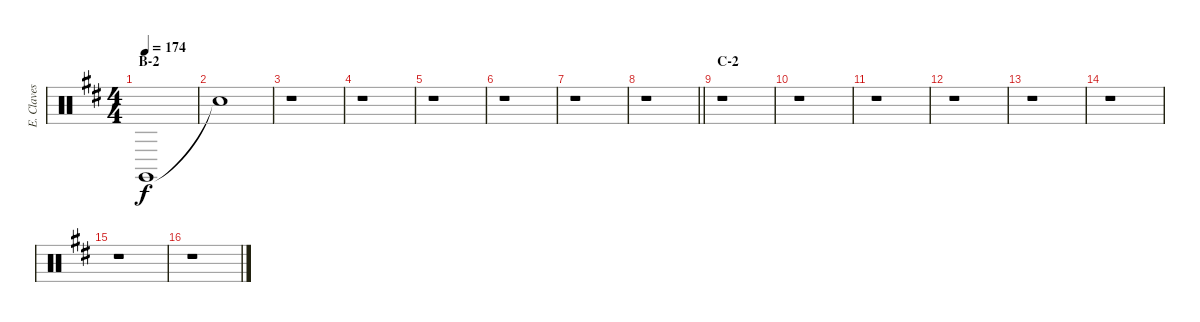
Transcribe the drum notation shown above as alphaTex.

\track ("E. Claves" "E. Claves") {instrument percussion}
\staff {score}
\articulation defaults
\ts (4 4)
\section ("" "B-2")
\tempo 174
\clef neutral
\ks bminor "Claves (hit)".1{dy f}
|
"Snare (hit)"{t}.1 |
r.1 |
r.1 |
r.1 |
r.1 |
r.1 |
\barLineRight lightlight
r.1 |
\section ("" "C-2")
r.1 |
r.1 |
r.1 |
r.1 |
r.1 |
r.1 |
r.1 |
r.1
